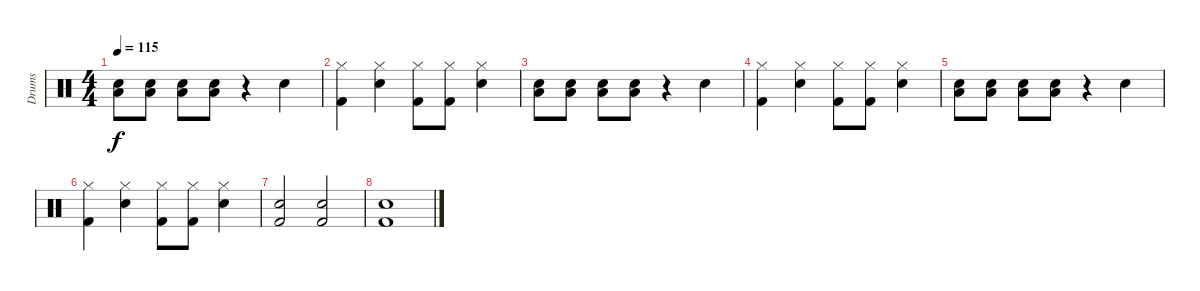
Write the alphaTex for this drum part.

\track ("Drums" "Drums") {instrument percussion}
\staff {score}
\articulation defaults
\ts (4 4)
\tempo 115
\clef neutral
\ks c
("Electric Snare (hit)" "Low Floor Tom (hit)").8{dy f} ("Electric Snare (hit)" "Low Floor Tom (hit)").8 ("Electric Snare (hit)" "Low Floor Tom (hit)").8 ("Electric Snare (hit)" "Low Floor Tom (hit)").8 r.4 "Electric Snare (hit)".4 |
("Hi-Hat (closed)" "Kick (hit) 2").4 ("Hi-Hat (closed)" "Electric Snare (hit)").4 ("Hi-Hat (closed)" "Kick (hit) 2").8 ("Hi-Hat (closed)" "Kick (hit) 2").8 ("Hi-Hat (closed)" "Electric Snare (hit)").4 |
("Electric Snare (hit)" "Low Floor Tom (hit)").8 ("Electric Snare (hit)" "Low Floor Tom (hit)").8 ("Electric Snare (hit)" "Low Floor Tom (hit)").8 ("Electric Snare (hit)" "Low Floor Tom (hit)").8 r.4 "Electric Snare (hit)".4 |
("Hi-Hat (closed)" "Kick (hit) 2").4 ("Hi-Hat (closed)" "Electric Snare (hit)").4 ("Hi-Hat (closed)" "Kick (hit) 2").8 ("Hi-Hat (closed)" "Kick (hit) 2").8 ("Hi-Hat (closed)" "Electric Snare (hit)").4 |
("Electric Snare (hit)" "Low Floor Tom (hit)").8 ("Electric Snare (hit)" "Low Floor Tom (hit)").8 ("Electric Snare (hit)" "Low Floor Tom (hit)").8 ("Electric Snare (hit)" "Low Floor Tom (hit)").8 r.4 "Electric Snare (hit)".4 |
("Hi-Hat (closed)" "Kick (hit) 2").4 ("Hi-Hat (closed)" "Electric Snare (hit)").4 ("Hi-Hat (closed)" "Kick (hit) 2").8 ("Hi-Hat (closed)" "Kick (hit) 2").8 ("Hi-Hat (closed)" "Electric Snare (hit)").4 |
("Electric Snare (hit)" "Kick (hit) 2").2 ("Electric Snare (hit)" "Kick (hit) 2").2 |
("Electric Snare (hit)" "Kick (hit) 2").1
